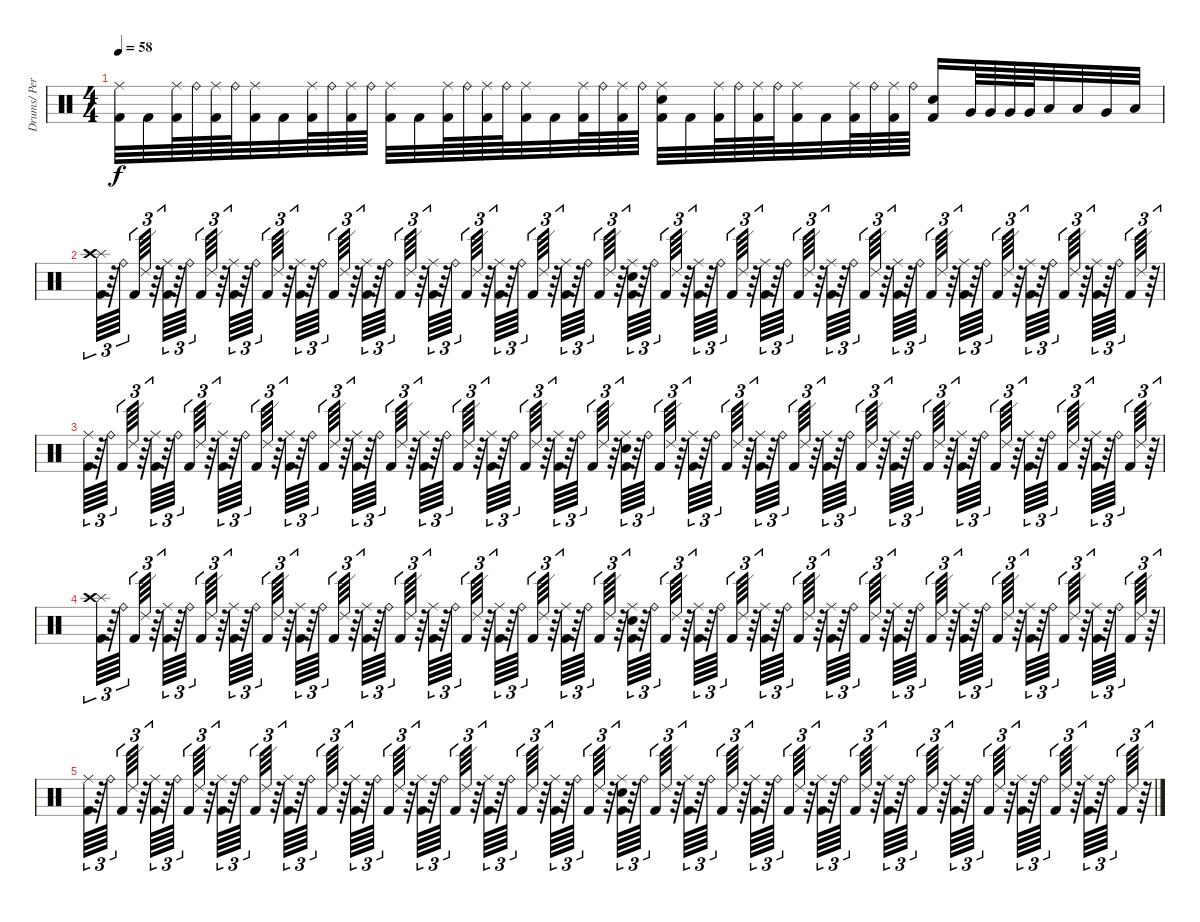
\track ("Drums/ Percussion - Tony Laureano" "Drums/ Per") {instrument percussion}
\staff {score}
\articulation defaults
\ts (4 4)
\tempo 58
\clef neutral
\ks c
("Ride (middle)" "Kick (hit) 2").32{dy f} "Kick (hit) 2".32 ("Ride (middle)" "Kick (hit) 2").64 "Ride (bell)".64 ("Ride (middle)" "Kick (hit) 2").64 "Ride (bell)".64 ("Ride (middle)" "Kick (hit) 2").32 "Kick (hit) 2".32 ("Ride (middle)" "Kick (hit) 2").64 "Ride (bell)".64 ("Ride (middle)" "Kick (hit) 2").64 "Ride (bell)".64 ("Ride (middle)" "Kick (hit) 2").32 "Kick (hit) 2".32 ("Ride (middle)" "Kick (hit) 2").64 "Ride (bell)".64 ("Ride (middle)" "Kick (hit) 2").64 "Ride (bell)".64 ("Ride (middle)" "Kick (hit) 2").32 "Kick (hit) 2".32 ("Ride (middle)" "Kick (hit) 2").64 "Ride (bell)".64 ("Ride (middle)" "Kick (hit) 2").64 "Ride (bell)".64 ("Ride (middle)" "Electric Snare (hit)" "Kick (hit) 2").32 "Kick (hit) 2".32 ("Ride (middle)" "Kick (hit) 2").64 "Ride (bell)".64 ("Ride (middle)" "Kick (hit) 2").64 "Ride (bell)".64 ("Ride (middle)" "Kick (hit) 2").32 "Kick (hit) 2".32 ("Ride (middle)" "Kick (hit) 2").64 "Ride (bell)".64 ("Ride (middle)" "Kick (hit) 2").64 "Ride (bell)".64 ("Electric Snare (hit)" "Kick (hit) 2").16 "Very Low Tom (hit)".64 "Very Low Tom (hit)".64 "Very Low Tom (hit)".64 "Very Low Tom (hit)".64 "Low Tom (hit)".32 "Low Tom (hit)".32 "Very Low Tom (hit)".32 "Low Floor Tom (hit)".32 |
("Splash (hit)" "Crash high (hit)" "Kick (hit) 2").64{tu (3 2) volume 0} r.64{tu (3 2)} "Ride (bell)".64{tu (3 2)} "Kick (hit) 2".64{tu (3 2)} "Ride (edge) 2".64{tu (3 2)} r.64{tu (3 2)} ("Ride (middle)" "Kick (hit) 2").64{tu (3 2)} r.64{tu (3 2)} "Ride (bell)".64{tu (3 2)} "Kick (hit) 2".64{tu (3 2)} "Ride (edge) 2".64{tu (3 2)} r.64{tu (3 2)} ("Ride (middle)" "Kick (hit) 2").64{tu (3 2)} r.64{tu (3 2)} "Ride (bell)".64{tu (3 2)} "Kick (hit) 2".64{tu (3 2)} "Ride (edge) 2".64{tu (3 2)} r.64{tu (3 2)} ("Ride (middle)" "Kick (hit) 2").64{tu (3 2)} r.64{tu (3 2)} "Ride (bell)".64{tu (3 2)} "Kick (hit) 2".64{tu (3 2)} "Ride (edge) 2".64{tu (3 2)} r.64{tu (3 2)} ("Ride (middle)" "Kick (hit) 2").64{tu (3 2)} r.64{tu (3 2)} "Ride (bell)".64{tu (3 2)} "Kick (hit) 2".64{tu (3 2)} "Ride (edge) 2".64{tu (3 2)} r.64{tu (3 2)} ("Ride (middle)" "Kick (hit) 2").64{tu (3 2)} r.64{tu (3 2)} "Ride (bell)".64{tu (3 2)} "Kick (hit) 2".64{tu (3 2)} "Ride (edge) 2".64{tu (3 2)} r.64{tu (3 2)} ("Ride (middle)" "Kick (hit) 2").64{tu (3 2)} r.64{tu (3 2)} "Ride (bell)".64{tu (3 2)} "Kick (hit) 2".64{tu (3 2)} "Ride (edge) 2".64{tu (3 2)} r.64{tu (3 2)} ("Ride (middle)" "Kick (hit) 2").64{tu (3 2)} r.64{tu (3 2)} "Ride (bell)".64{tu (3 2)} "Kick (hit) 2".64{tu (3 2)} "Ride (edge) 2".64{tu (3 2)} r.64{tu (3 2)} ("Ride (middle)" "Electric Snare (hit)" "Kick (hit) 2").64{tu (3 2)} r.64{tu (3 2)} "Ride (bell)".64{tu (3 2)} "Kick (hit) 2".64{tu (3 2)} "Ride (edge) 2".64{tu (3 2)} r.64{tu (3 2)} ("Ride (middle)" "Kick (hit) 2").64{tu (3 2)} r.64{tu (3 2)} "Ride (bell)".64{tu (3 2)} "Kick (hit) 2".64{tu (3 2)} "Ride (edge) 2".64{tu (3 2)} r.64{tu (3 2)} ("Ride (middle)" "Kick (hit) 2").64{tu (3 2)} r.64{tu (3 2)} "Ride (bell)".64{tu (3 2)} "Kick (hit) 2".64{tu (3 2)} "Ride (edge) 2".64{tu (3 2)} r.64{tu (3 2)} ("Ride (middle)" "Kick (hit) 2").64{tu (3 2)} r.64{tu (3 2)} "Ride (bell)".64{tu (3 2)} "Kick (hit) 2".64{tu (3 2)} "Ride (edge) 2".64{tu (3 2)} r.64{tu (3 2)} ("Ride (middle)" "Kick (hit) 2").64{tu (3 2)} r.64{tu (3 2)} "Ride (bell)".64{tu (3 2)} "Kick (hit) 2".64{tu (3 2)} "Ride (edge) 2".64{tu (3 2)} r.64{tu (3 2)} ("Ride (middle)" "Kick (hit) 2").64{tu (3 2)} r.64{tu (3 2)} "Ride (bell)".64{tu (3 2)} "Kick (hit) 2".64{tu (3 2)} "Ride (edge) 2".64{tu (3 2)} r.64{tu (3 2)} ("Ride (middle)" "Kick (hit) 2").64{tu (3 2)} r.64{tu (3 2)} "Ride (bell)".64{tu (3 2)} "Kick (hit) 2".64{tu (3 2)} "Ride (edge) 2".64{tu (3 2)} r.64{tu (3 2)} ("Ride (middle)" "Kick (hit) 2").64{tu (3 2)} r.64{tu (3 2)} "Ride (bell)".64{tu (3 2)} "Kick (hit) 2".64{tu (3 2)} "Ride (edge) 2".64{tu (3 2)} r.64{tu (3 2)} |
("Ride (middle)" "Kick (hit) 2").64{tu (3 2)} r.64{tu (3 2)} "Ride (bell)".64{tu (3 2)} "Kick (hit) 2".64{tu (3 2)} "Ride (edge) 2".64{tu (3 2)} r.64{tu (3 2)} ("Ride (middle)" "Kick (hit) 2").64{tu (3 2)} r.64{tu (3 2)} "Ride (bell)".64{tu (3 2)} "Kick (hit) 2".64{tu (3 2)} "Ride (edge) 2".64{tu (3 2)} r.64{tu (3 2)} ("Ride (middle)" "Kick (hit) 2").64{tu (3 2)} r.64{tu (3 2)} "Ride (bell)".64{tu (3 2)} "Kick (hit) 2".64{tu (3 2)} "Ride (edge) 2".64{tu (3 2)} r.64{tu (3 2)} ("Ride (middle)" "Kick (hit) 2").64{tu (3 2)} r.64{tu (3 2)} "Ride (bell)".64{tu (3 2)} "Kick (hit) 2".64{tu (3 2)} "Ride (edge) 2".64{tu (3 2)} r.64{tu (3 2)} ("Ride (middle)" "Kick (hit) 2").64{tu (3 2)} r.64{tu (3 2)} "Ride (bell)".64{tu (3 2)} "Kick (hit) 2".64{tu (3 2)} "Ride (edge) 2".64{tu (3 2)} r.64{tu (3 2)} ("Ride (middle)" "Kick (hit) 2").64{tu (3 2)} r.64{tu (3 2)} "Ride (bell)".64{tu (3 2)} "Kick (hit) 2".64{tu (3 2)} "Ride (edge) 2".64{tu (3 2)} r.64{tu (3 2)} ("Ride (middle)" "Kick (hit) 2").64{tu (3 2)} r.64{tu (3 2)} "Ride (bell)".64{tu (3 2)} "Kick (hit) 2".64{tu (3 2)} "Ride (edge) 2".64{tu (3 2)} r.64{tu (3 2)} ("Ride (middle)" "Kick (hit) 2").64{tu (3 2)} r.64{tu (3 2)} "Ride (bell)".64{tu (3 2)} "Kick (hit) 2".64{tu (3 2)} "Ride (edge) 2".64{tu (3 2)} r.64{tu (3 2)} ("Ride (middle)" "Electric Snare (hit)" "Kick (hit) 2").64{tu (3 2)} r.64{tu (3 2)} "Ride (bell)".64{tu (3 2)} "Kick (hit) 2".64{tu (3 2)} "Ride (edge) 2".64{tu (3 2)} r.64{tu (3 2)} ("Ride (middle)" "Kick (hit) 2").64{tu (3 2)} r.64{tu (3 2)} "Ride (bell)".64{tu (3 2)} "Kick (hit) 2".64{tu (3 2)} "Ride (edge) 2".64{tu (3 2)} r.64{tu (3 2)} ("Ride (middle)" "Kick (hit) 2").64{tu (3 2)} r.64{tu (3 2)} "Ride (bell)".64{tu (3 2)} "Kick (hit) 2".64{tu (3 2)} "Ride (edge) 2".64{tu (3 2)} r.64{tu (3 2)} ("Ride (middle)" "Kick (hit) 2").64{tu (3 2)} r.64{tu (3 2)} "Ride (bell)".64{tu (3 2)} "Kick (hit) 2".64{tu (3 2)} "Ride (edge) 2".64{tu (3 2)} r.64{tu (3 2)} ("Ride (middle)" "Kick (hit) 2").64{tu (3 2)} r.64{tu (3 2)} "Ride (bell)".64{tu (3 2)} "Kick (hit) 2".64{tu (3 2)} "Ride (edge) 2".64{tu (3 2)} r.64{tu (3 2)} ("Ride (middle)" "Kick (hit) 2").64{tu (3 2)} r.64{tu (3 2)} "Ride (bell)".64{tu (3 2)} "Kick (hit) 2".64{tu (3 2)} "Ride (edge) 2".64{tu (3 2)} r.64{tu (3 2)} ("Ride (middle)" "Kick (hit) 2").64{tu (3 2)} r.64{tu (3 2)} "Ride (bell)".64{tu (3 2)} "Kick (hit) 2".64{tu (3 2)} "Ride (edge) 2".64{tu (3 2)} r.64{tu (3 2)} ("Ride (middle)" "Kick (hit) 2").64{tu (3 2)} r.64{tu (3 2)} "Ride (bell)".64{tu (3 2)} "Kick (hit) 2".64{tu (3 2)} "Ride (edge) 2".64{tu (3 2)} r.64{tu (3 2)} |
("Splash (hit)" "Crash high (hit)" "Kick (hit) 2").64{tu (3 2)} r.64{tu (3 2)} "Ride (bell)".64{tu (3 2)} "Kick (hit) 2".64{tu (3 2)} "Ride (edge) 2".64{tu (3 2)} r.64{tu (3 2)} ("Ride (middle)" "Kick (hit) 2").64{tu (3 2)} r.64{tu (3 2)} "Ride (bell)".64{tu (3 2)} "Kick (hit) 2".64{tu (3 2)} "Ride (edge) 2".64{tu (3 2)} r.64{tu (3 2)} ("Ride (middle)" "Kick (hit) 2").64{tu (3 2)} r.64{tu (3 2)} "Ride (bell)".64{tu (3 2)} "Kick (hit) 2".64{tu (3 2)} "Ride (edge) 2".64{tu (3 2)} r.64{tu (3 2)} ("Ride (middle)" "Kick (hit) 2").64{tu (3 2)} r.64{tu (3 2)} "Ride (bell)".64{tu (3 2)} "Kick (hit) 2".64{tu (3 2)} "Ride (edge) 2".64{tu (3 2)} r.64{tu (3 2)} ("Ride (middle)" "Kick (hit) 2").64{tu (3 2)} r.64{tu (3 2)} "Ride (bell)".64{tu (3 2)} "Kick (hit) 2".64{tu (3 2)} "Ride (edge) 2".64{tu (3 2)} r.64{tu (3 2)} ("Ride (middle)" "Kick (hit) 2").64{tu (3 2)} r.64{tu (3 2)} "Ride (bell)".64{tu (3 2)} "Kick (hit) 2".64{tu (3 2)} "Ride (edge) 2".64{tu (3 2)} r.64{tu (3 2)} ("Ride (middle)" "Kick (hit) 2").64{tu (3 2)} r.64{tu (3 2)} "Ride (bell)".64{tu (3 2)} "Kick (hit) 2".64{tu (3 2)} "Ride (edge) 2".64{tu (3 2)} r.64{tu (3 2)} ("Ride (middle)" "Kick (hit) 2").64{tu (3 2)} r.64{tu (3 2)} "Ride (bell)".64{tu (3 2)} "Kick (hit) 2".64{tu (3 2)} "Ride (edge) 2".64{tu (3 2)} r.64{tu (3 2)} ("Ride (middle)" "Electric Snare (hit)" "Kick (hit) 2").64{tu (3 2)} r.64{tu (3 2)} "Ride (bell)".64{tu (3 2)} "Kick (hit) 2".64{tu (3 2)} "Ride (edge) 2".64{tu (3 2)} r.64{tu (3 2)} ("Ride (middle)" "Kick (hit) 2").64{tu (3 2)} r.64{tu (3 2)} "Ride (bell)".64{tu (3 2)} "Kick (hit) 2".64{tu (3 2)} "Ride (edge) 2".64{tu (3 2)} r.64{tu (3 2)} ("Ride (middle)" "Kick (hit) 2").64{tu (3 2)} r.64{tu (3 2)} "Ride (bell)".64{tu (3 2)} "Kick (hit) 2".64{tu (3 2)} "Ride (edge) 2".64{tu (3 2)} r.64{tu (3 2)} ("Ride (middle)" "Kick (hit) 2").64{tu (3 2)} r.64{tu (3 2)} "Ride (bell)".64{tu (3 2)} "Kick (hit) 2".64{tu (3 2)} "Ride (edge) 2".64{tu (3 2)} r.64{tu (3 2)} ("Ride (middle)" "Kick (hit) 2").64{tu (3 2)} r.64{tu (3 2)} "Ride (bell)".64{tu (3 2)} "Kick (hit) 2".64{tu (3 2)} "Ride (edge) 2".64{tu (3 2)} r.64{tu (3 2)} ("Ride (middle)" "Kick (hit) 2").64{tu (3 2)} r.64{tu (3 2)} "Ride (bell)".64{tu (3 2)} "Kick (hit) 2".64{tu (3 2)} "Ride (edge) 2".64{tu (3 2)} r.64{tu (3 2)} ("Ride (middle)" "Kick (hit) 2").64{tu (3 2)} r.64{tu (3 2)} "Ride (bell)".64{tu (3 2)} "Kick (hit) 2".64{tu (3 2)} "Ride (edge) 2".64{tu (3 2)} r.64{tu (3 2)} ("Ride (middle)" "Kick (hit) 2").64{tu (3 2)} r.64{tu (3 2)} "Ride (bell)".64{tu (3 2)} "Kick (hit) 2".64{tu (3 2)} "Ride (edge) 2".64{tu (3 2)} r.64{tu (3 2)} |
("Ride (middle)" "Kick (hit) 2").64{tu (3 2)} r.64{tu (3 2)} "Ride (bell)".64{tu (3 2)} "Kick (hit) 2".64{tu (3 2)} "Ride (edge) 2".64{tu (3 2)} r.64{tu (3 2)} ("Ride (middle)" "Kick (hit) 2").64{tu (3 2)} r.64{tu (3 2)} "Ride (bell)".64{tu (3 2)} "Kick (hit) 2".64{tu (3 2)} "Ride (edge) 2".64{tu (3 2)} r.64{tu (3 2)} ("Ride (middle)" "Kick (hit) 2").64{tu (3 2)} r.64{tu (3 2)} "Ride (bell)".64{tu (3 2)} "Kick (hit) 2".64{tu (3 2)} "Ride (edge) 2".64{tu (3 2)} r.64{tu (3 2)} ("Ride (middle)" "Kick (hit) 2").64{tu (3 2)} r.64{tu (3 2)} "Ride (bell)".64{tu (3 2)} "Kick (hit) 2".64{tu (3 2)} "Ride (edge) 2".64{tu (3 2)} r.64{tu (3 2)} ("Ride (middle)" "Kick (hit) 2").64{tu (3 2)} r.64{tu (3 2)} "Ride (bell)".64{tu (3 2)} "Kick (hit) 2".64{tu (3 2)} "Ride (edge) 2".64{tu (3 2)} r.64{tu (3 2)} ("Ride (middle)" "Kick (hit) 2").64{tu (3 2)} r.64{tu (3 2)} "Ride (bell)".64{tu (3 2)} "Kick (hit) 2".64{tu (3 2)} "Ride (edge) 2".64{tu (3 2)} r.64{tu (3 2)} ("Ride (middle)" "Kick (hit) 2").64{tu (3 2)} r.64{tu (3 2)} "Ride (bell)".64{tu (3 2)} "Kick (hit) 2".64{tu (3 2)} "Ride (edge) 2".64{tu (3 2)} r.64{tu (3 2)} ("Ride (middle)" "Kick (hit) 2").64{tu (3 2)} r.64{tu (3 2)} "Ride (bell)".64{tu (3 2)} "Kick (hit) 2".64{tu (3 2)} "Ride (edge) 2".64{tu (3 2)} r.64{tu (3 2)} ("Ride (middle)" "Electric Snare (hit)" "Kick (hit) 2").64{tu (3 2)} r.64{tu (3 2)} "Ride (bell)".64{tu (3 2)} "Kick (hit) 2".64{tu (3 2)} "Ride (edge) 2".64{tu (3 2)} r.64{tu (3 2)} ("Ride (middle)" "Kick (hit) 2").64{tu (3 2)} r.64{tu (3 2)} "Ride (bell)".64{tu (3 2)} "Kick (hit) 2".64{tu (3 2)} "Ride (edge) 2".64{tu (3 2)} r.64{tu (3 2)} ("Ride (middle)" "Kick (hit) 2").64{tu (3 2)} r.64{tu (3 2)} "Ride (bell)".64{tu (3 2)} "Kick (hit) 2".64{tu (3 2)} "Ride (edge) 2".64{tu (3 2)} r.64{tu (3 2)} ("Ride (middle)" "Kick (hit) 2").64{tu (3 2)} r.64{tu (3 2)} "Ride (bell)".64{tu (3 2)} "Kick (hit) 2".64{tu (3 2)} "Ride (edge) 2".64{tu (3 2)} r.64{tu (3 2)} ("Ride (middle)" "Kick (hit) 2").64{tu (3 2)} r.64{tu (3 2)} "Ride (bell)".64{tu (3 2)} "Kick (hit) 2".64{tu (3 2)} "Ride (edge) 2".64{tu (3 2)} r.64{tu (3 2)} ("Ride (middle)" "Kick (hit) 2").64{tu (3 2)} r.64{tu (3 2)} "Ride (bell)".64{tu (3 2)} "Kick (hit) 2".64{tu (3 2)} "Ride (edge) 2".64{tu (3 2)} r.64{tu (3 2)} ("Ride (middle)" "Kick (hit) 2").64{tu (3 2)} r.64{tu (3 2)} "Ride (bell)".64{tu (3 2)} "Kick (hit) 2".64{tu (3 2)} "Ride (edge) 2".64{tu (3 2)} r.64{tu (3 2)} ("Ride (middle)" "Kick (hit) 2").64{tu (3 2)} r.64{tu (3 2)} "Ride (bell)".64{tu (3 2)} "Kick (hit) 2".64{tu (3 2)} "Ride (edge) 2".64{tu (3 2)} r.64{tu (3 2)}
